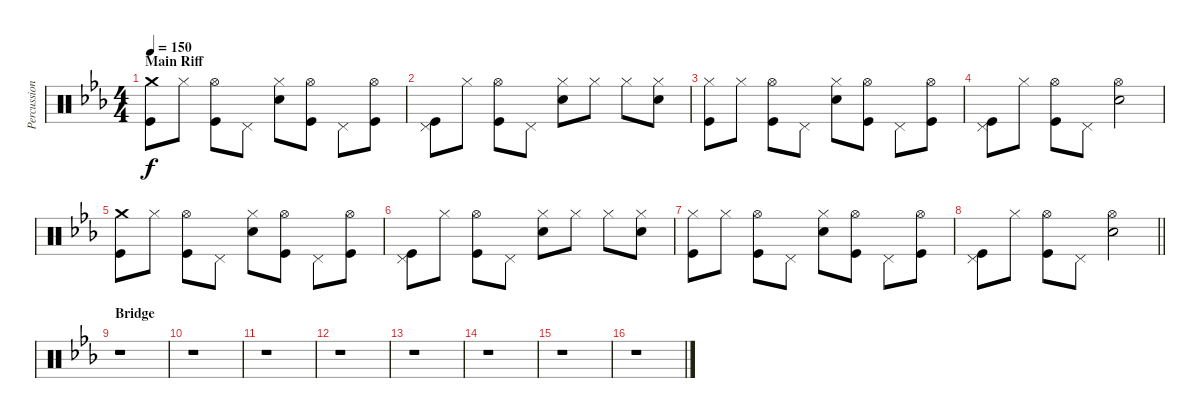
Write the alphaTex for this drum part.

\track ("Percussion" "Percussion") {instrument percussion}
\staff {score}
\articulation defaults
\ts (4 4)
\section ("" "Main Riff")
\tempo 150
\clef neutral
\ks eb
("Crash medium (hit)" "Kick (hit)").8{dy f} "Hi-Hat (closed)".8 ("Hi-Hat (open)" "Kick (hit)").8 "Pedal Hi-Hat (hit)".8 ("Hi-Hat (closed)" "Electric Snare (hit)").8 ("Hi-Hat (open)" "Kick (hit)").8 "Pedal Hi-Hat (hit)".8 ("Hi-Hat (open)" "Kick (hit)").8 |
("Pedal Hi-Hat (hit)" "Kick (hit)").8 "Hi-Hat (closed)".8 ("Hi-Hat (open)" "Kick (hit)").8 "Pedal Hi-Hat (hit)".8 ("Hi-Hat (closed)" "Electric Snare (hit)").8 "Hi-Hat (closed)".8 "Hi-Hat (closed)".8 ("Hi-Hat (closed)" "Electric Snare (hit)").8 |
("Hi-Hat (closed)" "Kick (hit)").8 "Hi-Hat (closed)".8 ("Hi-Hat (open)" "Kick (hit)").8 "Pedal Hi-Hat (hit)".8 ("Hi-Hat (closed)" "Electric Snare (hit)").8 ("Hi-Hat (open)" "Kick (hit)").8 "Pedal Hi-Hat (hit)".8 ("Hi-Hat (open)" "Kick (hit)").8 |
("Pedal Hi-Hat (hit)" "Kick (hit)").8 "Hi-Hat (closed)".8 ("Hi-Hat (open)" "Kick (hit)").8 "Pedal Hi-Hat (hit)".8 ("Hi-Hat (open)" "Electric Snare (hit)").2 |
("Crash medium (hit)" "Kick (hit)").8 "Hi-Hat (closed)".8 ("Hi-Hat (open)" "Kick (hit)").8 "Pedal Hi-Hat (hit)".8 ("Hi-Hat (closed)" "Electric Snare (hit)").8 ("Hi-Hat (open)" "Kick (hit)").8 "Pedal Hi-Hat (hit)".8 ("Hi-Hat (open)" "Kick (hit)").8 |
("Pedal Hi-Hat (hit)" "Kick (hit)").8 "Hi-Hat (closed)".8 ("Hi-Hat (open)" "Kick (hit)").8 "Pedal Hi-Hat (hit)".8 ("Hi-Hat (closed)" "Electric Snare (hit)").8 "Hi-Hat (closed)".8 "Hi-Hat (closed)".8 ("Hi-Hat (closed)" "Electric Snare (hit)").8 |
("Hi-Hat (closed)" "Kick (hit)").8 "Hi-Hat (closed)".8 ("Hi-Hat (open)" "Kick (hit)").8 "Pedal Hi-Hat (hit)".8 ("Hi-Hat (closed)" "Electric Snare (hit)").8 ("Hi-Hat (open)" "Kick (hit)").8 "Pedal Hi-Hat (hit)".8 ("Hi-Hat (open)" "Kick (hit)").8 |
\barLineRight lightlight
("Pedal Hi-Hat (hit)" "Kick (hit)").8 "Hi-Hat (closed)".8 ("Hi-Hat (open)" "Kick (hit)").8 "Pedal Hi-Hat (hit)".8 ("Hi-Hat (open)" "Electric Snare (hit)").2 |
\section ("" "Bridge")
r.1 |
r.1 |
r.1 |
r.1 |
r.1 |
r.1 |
r.1 |
r.1
